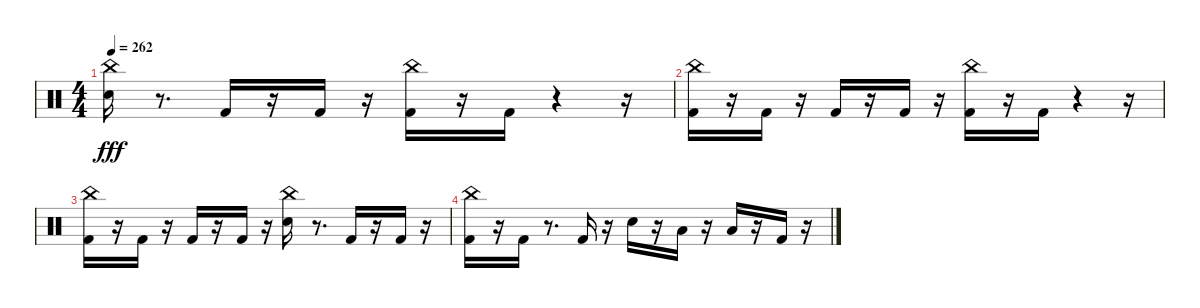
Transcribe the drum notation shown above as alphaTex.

\track "" {instrument percussion}
\staff {score}
\articulation defaults
\ts (4 4)
\tempo 262
\clef neutral
\ks c
("Snare (hit) 2" "China (hit)").16{dy fff} r.8{d} "Kick (hit) 2".16 r.16 "Kick (hit) 2".16 r.16 ("Kick (hit) 2" "China (hit)").16 r.16 "Kick (hit) 2".16 r.4 r.16 |
("Kick (hit) 2" "China (hit)").16 r.16 "Kick (hit) 2".16 r.16 "Kick (hit) 2".16 r.16 "Kick (hit) 2".16 r.16 ("Kick (hit) 2" "China (hit)").16 r.16 "Kick (hit) 2".16 r.4 r.16 |
("Kick (hit) 2" "China (hit)").16 r.16 "Kick (hit) 2".16 r.16 "Kick (hit) 2".16 r.16 "Kick (hit) 2".16 r.16 ("Electric Snare (hit)" "China (hit)").16 r.8{d} "Kick (hit) 2".16 r.16 "Kick (hit) 2".16 r.16 |
("Kick (hit) 2" "China (hit)").16 r.16 "Kick (hit) 2".16 r.8{d} "Kick (hit) 2".16 r.16 "Snare (hit) 2".16 r.16 "Low Tom (hit)".16 r.16 "Low Floor Tom (hit)".16 r.16 "Kick (hit) 2".16 r.16
